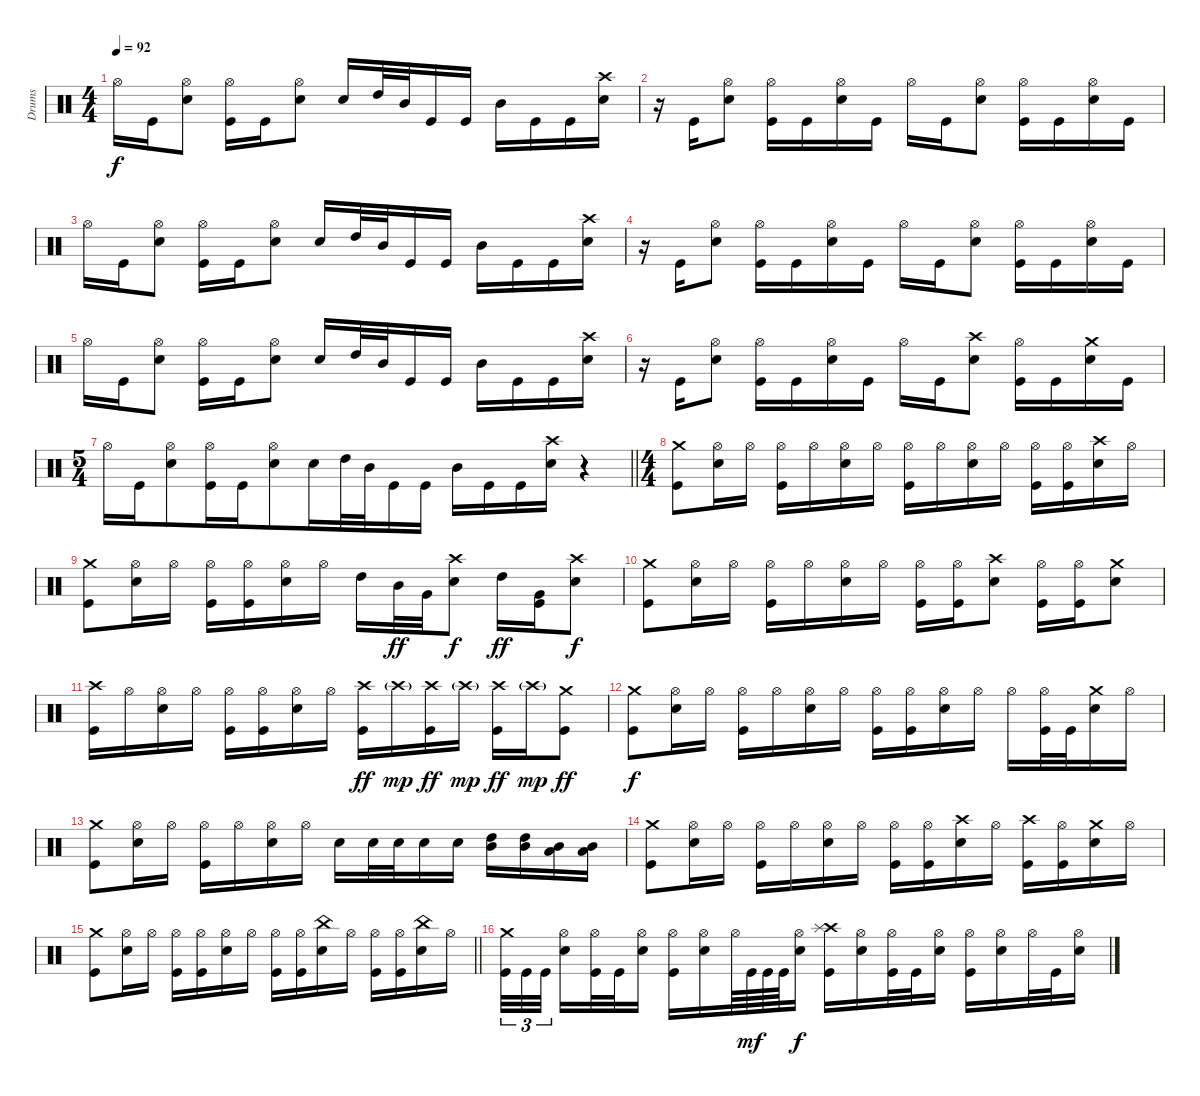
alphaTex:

\track ("Drums" "Drums") {instrument percussion}
\staff {score}
\articulation defaults
\ts (4 4)
\tempo 92
\clef neutral
\ks c "Hi-Hat (open)".16{dy f} "Kick (hit)".16
("Hi-Hat (open)" "Snare (hit) 2").8 ("Hi-Hat (open)" "Kick (hit)").16 "Kick (hit)".16 ("Hi-Hat (open)" "Snare (hit) 2").8 "Snare (hit) 2".16 "High Tom (hit)".32 "Mid Tom (hit)".32 "Kick (hit)".16 "Kick (hit)".16 "Mid Tom (hit)".16 "Kick (hit)".16 "Kick (hit)".16 ("Crash high (hit)" "Snare (hit) 2").16 |
r.16 "Kick (hit)".16 ("Hi-Hat (open)" "Snare (hit) 2").8 ("Hi-Hat (open)" "Kick (hit)").16 "Kick (hit)".16 ("Hi-Hat (open)" "Snare (hit) 2").16 "Kick (hit)".16 "Hi-Hat (open)".16 "Kick (hit)".16 ("Hi-Hat (open)" "Snare (hit) 2").8 ("Hi-Hat (open)" "Kick (hit)").16 "Kick (hit)".16 ("Hi-Hat (open)" "Snare (hit) 2").16 "Kick (hit)".16 |
"Hi-Hat (open)".16 "Kick (hit)".16 ("Hi-Hat (open)" "Snare (hit) 2").8 ("Hi-Hat (open)" "Kick (hit)").16 "Kick (hit)".16 ("Hi-Hat (open)" "Snare (hit) 2").8 "Snare (hit) 2".16 "High Tom (hit)".32 "Mid Tom (hit)".32 "Kick (hit)".16 "Kick (hit)".16 "Mid Tom (hit)".16 "Kick (hit)".16 "Kick (hit)".16 ("Crash high (hit)" "Snare (hit) 2").16 |
r.16 "Kick (hit)".16 ("Hi-Hat (open)" "Snare (hit) 2").8 ("Hi-Hat (open)" "Kick (hit)").16 "Kick (hit)".16 ("Hi-Hat (open)" "Snare (hit) 2").16 "Kick (hit)".16 "Hi-Hat (open)".16 "Kick (hit)".16 ("Hi-Hat (open)" "Snare (hit) 2").8 ("Hi-Hat (open)" "Kick (hit)").16 "Kick (hit)".16 ("Hi-Hat (open)" "Snare (hit) 2").16 "Kick (hit)".16 |
"Hi-Hat (open)".16 "Kick (hit)".16 ("Hi-Hat (open)" "Snare (hit) 2").8 ("Hi-Hat (open)" "Kick (hit)").16 "Kick (hit)".16 ("Hi-Hat (open)" "Snare (hit) 2").8 "Snare (hit) 2".16 "High Tom (hit)".32 "Mid Tom (hit)".32 "Kick (hit)".16 "Kick (hit)".16 "Mid Tom (hit)".16 "Kick (hit)".16 "Kick (hit)".16 ("Crash high (hit)" "Snare (hit) 2").16 |
r.16 "Kick (hit)".16 ("Hi-Hat (open)" "Snare (hit) 2").8 ("Hi-Hat (open)" "Kick (hit)").16 "Kick (hit)".16 ("Hi-Hat (open)" "Snare (hit) 2").16 "Kick (hit)".16 "Hi-Hat (open)".16 "Kick (hit)".16 ("Crash high (hit)" "Snare (hit) 2").8 ("Hi-Hat (open)" "Kick (hit)").16 "Kick (hit)".16 ("Crash medium (hit)" "Snare (hit) 2").16 "Kick (hit)".16 |
\ts (5 4)
\beaming (8 6 4)
\barLineRight lightlight "Hi-Hat (open)".16 "Kick (hit)".16
("Hi-Hat (open)" "Snare (hit) 2").8 ("Hi-Hat (open)" "Kick (hit)").16 "Kick (hit)".16 ("Hi-Hat (open)" "Snare (hit) 2").8 "Snare (hit) 2".16 "High Tom (hit)".32 "Mid Tom (hit)".32 "Kick (hit)".16 "Kick (hit)".16 "Mid Tom (hit)".16 "Kick (hit)".16 "Kick (hit)".16 ("Crash high (hit)" "Snare (hit) 2").16 r.4 |
\ts (4 4)
\beaming (8 2 2 2 2)
("Crash medium (hit)" "Kick (hit)").8 ("Hi-Hat (open)" "Snare (hit) 2").16 "Hi-Hat (open)".16 ("Hi-Hat (open)" "Kick (hit)").16 "Hi-Hat (open)".16 ("Hi-Hat (open)" "Snare (hit) 2").16 "Hi-Hat (open)".16 ("Hi-Hat (open)" "Kick (hit)").16 "Hi-Hat (open)".16 ("Hi-Hat (open)" "Snare (hit) 2").16 "Hi-Hat (open)".16 ("Hi-Hat (open)" "Kick (hit)").16 ("Hi-Hat (open)" "Kick (hit)").16 ("Crash high (hit)" "Snare (hit) 2").16 "Hi-Hat (open)".16 |
("Crash medium (hit)" "Kick (hit)").8 ("Hi-Hat (open)" "Snare (hit) 2").16 "Hi-Hat (open)".16 ("Hi-Hat (open)" "Kick (hit)").16 ("Hi-Hat (open)" "Kick (hit)").16 ("Hi-Hat (open)" "Snare (hit) 2").16 "Hi-Hat (open)".16 "High Tom (hit)".16 "Mid Tom (hit)".32{dy ff} "Very Low Tom (hit)".32 ("Crash high (hit)" "Snare (hit) 2").8{dy f} "High Tom (hit)".16{dy ff} ("Very Low Tom (hit)" "Kick (hit)").16 ("Crash high (hit)" "Snare (hit) 2").8{dy f} |
("Crash medium (hit)" "Kick (hit)").8 ("Hi-Hat (open)" "Snare (hit) 2").16 "Hi-Hat (open)".16 ("Hi-Hat (open)" "Kick (hit)").16 "Hi-Hat (open)".16 ("Hi-Hat (open)" "Snare (hit) 2").16 "Hi-Hat (open)".16 ("Hi-Hat (open)" "Kick (hit)").16 ("Hi-Hat (open)" "Kick (hit)").16 ("Crash high (hit)" "Snare (hit) 2").8 ("Hi-Hat (open)" "Kick (hit)").16 ("Hi-Hat (open)" "Kick (hit)").16 ("Crash medium (hit)" "Snare (hit) 2").8 |
("Crash high (hit)" "Kick (hit)").16 "Hi-Hat (open)".16 ("Hi-Hat (open)" "Snare (hit) 2").16 "Hi-Hat (open)".16 ("Hi-Hat (open)" "Kick (hit)").16 ("Hi-Hat (open)" "Kick (hit)").16 ("Hi-Hat (open)" "Snare (hit) 2").16 "Hi-Hat (open)".16 ("Crash high (hit)" "Kick (hit)").16{dy ff} "Crash high (hit)"{g}.16{dy mp} ("Crash high (hit)" "Kick (hit)").16{dy ff} "Crash high (hit)"{g}.16{dy mp} ("Crash high (hit)" "Kick (hit)").16{dy ff} "Crash high (hit)"{g}.16{dy mp} ("Crash medium (hit)" "Kick (hit)").8{dy ff} |
("Crash medium (hit)" "Kick (hit)").8{dy f} ("Hi-Hat (open)" "Snare (hit) 2").16 "Hi-Hat (open)".16 ("Hi-Hat (open)" "Kick (hit)").16 "Hi-Hat (open)".16 ("Hi-Hat (open)" "Snare (hit) 2").16 "Hi-Hat (open)".16 ("Hi-Hat (open)" "Kick (hit)").16 ("Hi-Hat (open)" "Kick (hit)").16 ("Hi-Hat (open)" "Snare (hit) 2").16 "Hi-Hat (open)".16 "Hi-Hat (open)".16 ("Hi-Hat (open)" "Kick (hit)").32 "Kick (hit)".32 ("Crash medium (hit)" "Snare (hit) 2").16 "Hi-Hat (open)".16 |
("Crash medium (hit)" "Kick (hit)").8 ("Hi-Hat (open)" "Snare (hit) 2").16 "Hi-Hat (open)".16 ("Hi-Hat (open)" "Kick (hit)").16 "Hi-Hat (open)".16 ("Hi-Hat (open)" "Snare (hit) 2").16 "Hi-Hat (open)".16 "Snare (hit) 2".16 "Snare (hit) 2".32 "Snare (hit) 2".32 "Snare (hit) 2".16 "Snare (hit) 2".16 ("High Tom (hit)" "Mid Tom (hit)").16 ("High Tom (hit)" "Mid Tom (hit)").16 ("Mid Tom (hit)" "Low Tom (hit)").16 ("Mid Tom (hit)" "Low Tom (hit)").16 |
("Crash medium (hit)" "Kick (hit)").8 ("Hi-Hat (open)" "Snare (hit) 2").16 "Hi-Hat (open)".16 ("Hi-Hat (open)" "Kick (hit)").16 "Hi-Hat (open)".16 ("Hi-Hat (open)" "Snare (hit) 2").16 "Hi-Hat (open)".16 ("Hi-Hat (open)" "Kick (hit)").16 ("Hi-Hat (open)" "Kick (hit)").16 ("Crash high (hit)" "Snare (hit) 2").16 "Hi-Hat (open)".16 ("Crash high (hit)" "Kick (hit)").16 ("Hi-Hat (open)" "Kick (hit)").16 ("Crash medium (hit)" "Snare (hit) 2").16 "Hi-Hat (open)".16 |
\barLineRight lightlight
("Crash medium (hit)" "Kick (hit)").8 ("Hi-Hat (open)" "Snare (hit) 2").16 "Hi-Hat (open)".16 ("Hi-Hat (open)" "Kick (hit)").16 ("Hi-Hat (open)" "Kick (hit)").16 ("Hi-Hat (open)" "Snare (hit) 2").16 "Hi-Hat (open)".16 ("Hi-Hat (open)" "Kick (hit)").16 ("Hi-Hat (open)" "Kick (hit)").16 ("China (hit)" "Snare (hit) 2").16 "Hi-Hat (open)".16 ("Hi-Hat (open)" "Kick (hit)").16 ("Hi-Hat (open)" "Kick (hit)").16 ("China (hit)" "Snare (hit) 2").16 "Hi-Hat (open)".16 |
("Crash medium (hit)" "Kick (hit)").32{tu (3 2)} "Kick (hit)".32{tu (3 2)} "Kick (hit)".32{tu (3 2)} ("Hi-Hat (open)" "Snare (hit) 2").16 ("Hi-Hat (open)" "Kick (hit)").32 "Kick (hit)".32 ("Hi-Hat (open)" "Snare (hit) 2").16 ("Hi-Hat (open)" "Kick (hit)").16 ("Hi-Hat (open)" "Snare (hit) 2").16 "Hi-Hat (open)".64 "Kick (hit)".64{dy mf} "Kick (hit)".64 "Kick (hit)".64 ("Hi-Hat (open)" "Snare (hit) 2").16{dy f} ("Crash high (hit)" "Splash (hit)" "Kick (hit)").16 ("Hi-Hat (open)" "Snare (hit) 2").16 ("Hi-Hat (open)" "Kick (hit)").32 "Kick (hit)".32 ("Hi-Hat (open)" "Snare (hit) 2").16 ("Hi-Hat (open)" "Kick (hit)").16 ("Hi-Hat (open)" "Snare (hit) 2").16 "Hi-Hat (open)".32 "Kick (hit)".32 ("Hi-Hat (open)" "Snare (hit) 2").16
